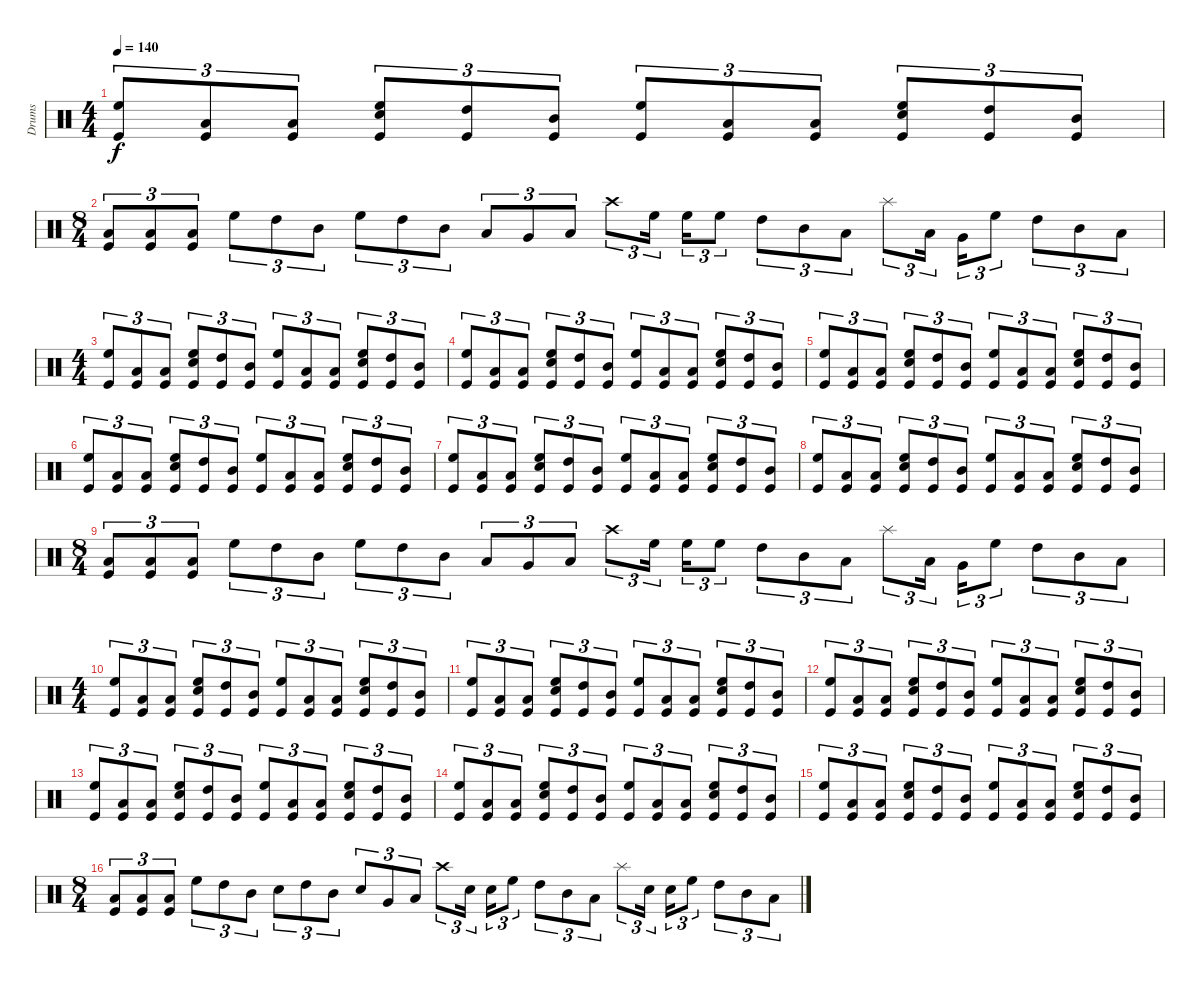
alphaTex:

\track ("Drums" "Drums") {instrument percussion}
\staff {score}
\articulation defaults
\ts (4 4)
\tempo 140
\clef neutral
\ks c
("High Floor Tom (hit)" "Kick (hit)").8{tu (3 2) dy f} ("Low Tom (hit)" "Kick (hit)").8{tu (3 2)} ("Low Floor Tom (hit)" "Kick (hit)").8{tu (3 2)} ("Snare (hit) 2" "High Floor Tom (hit)" "Kick (hit)").8{tu (3 2)} ("High Tom (hit)" "Kick (hit)").8{tu (3 2)} ("Mid Tom (hit)" "Kick (hit)").8{tu (3 2)} ("High Floor Tom (hit)" "Kick (hit)").8{tu (3 2)} ("Low Tom (hit)" "Kick (hit)").8{tu (3 2)} ("Low Floor Tom (hit)" "Kick (hit)").8{tu (3 2)} ("Snare (hit) 2" "High Floor Tom (hit)" "Kick (hit)").8{tu (3 2)} ("High Tom (hit)" "Kick (hit)").8{tu (3 2)} ("Mid Tom (hit)" "Kick (hit)").8{tu (3 2)} |
\ts (8 4)
("Low Floor Tom (hit)" "Kick (hit)").8{tu (3 2)} ("Low Floor Tom (hit)" "Kick (hit)").8{tu (3 2)} ("Low Floor Tom (hit)" "Kick (hit)").8{tu (3 2)} "High Floor Tom (hit)".8{tu (3 2)} "High Tom (hit)".8{tu (3 2)} "Mid Tom (hit)".8{tu (3 2)} "High Floor Tom (hit)".8{tu (3 2)} "High Tom (hit)".8{tu (3 2)} "Mid Tom (hit)".8{tu (3 2)} "Low Tom (hit)".8{tu (3 2)} "Very Low Tom (hit)".8{tu (3 2)} "Low Floor Tom (hit)".8{tu (3 2)} "Crash high (hit)".8{tu (3 2)} "High Floor Tom (hit)".16{tu (3 2)} "High Floor Tom (hit)".16{tu (3 2)} "High Floor Tom (hit)".8{tu (3 2)} "High Tom (hit)".8{tu (3 2)} "Mid Tom (hit)".8{tu (3 2)} "Low Tom (hit)".8{tu (3 2)} "Splash (hit)".8{tu (3 2)} "Low Floor Tom (hit)".16{tu (3 2)} "Very Low Tom (hit)".16{tu (3 2)} "High Floor Tom (hit)".8{tu (3 2)} "High Tom (hit)".8{tu (3 2)} "Mid Tom (hit)".8{tu (3 2)} "Low Tom (hit)".8{tu (3 2)} |
\ts (4 4)
("High Floor Tom (hit)" "Kick (hit)").8{tu (3 2)} ("Low Tom (hit)" "Kick (hit)").8{tu (3 2)} ("Low Floor Tom (hit)" "Kick (hit)").8{tu (3 2)} ("Snare (hit) 2" "High Floor Tom (hit)" "Kick (hit)").8{tu (3 2)} ("High Tom (hit)" "Kick (hit)").8{tu (3 2)} ("Mid Tom (hit)" "Kick (hit)").8{tu (3 2)} ("High Floor Tom (hit)" "Kick (hit)").8{tu (3 2)} ("Low Tom (hit)" "Kick (hit)").8{tu (3 2)} ("Low Floor Tom (hit)" "Kick (hit)").8{tu (3 2)} ("Snare (hit) 2" "High Floor Tom (hit)" "Kick (hit)").8{tu (3 2)} ("High Tom (hit)" "Kick (hit)").8{tu (3 2)} ("Mid Tom (hit)" "Kick (hit)").8{tu (3 2)} |
("High Floor Tom (hit)" "Kick (hit)").8{tu (3 2)} ("Low Tom (hit)" "Kick (hit)").8{tu (3 2)} ("Low Floor Tom (hit)" "Kick (hit)").8{tu (3 2)} ("Snare (hit) 2" "High Floor Tom (hit)" "Kick (hit)").8{tu (3 2)} ("High Tom (hit)" "Kick (hit)").8{tu (3 2)} ("Mid Tom (hit)" "Kick (hit)").8{tu (3 2)} ("High Floor Tom (hit)" "Kick (hit)").8{tu (3 2)} ("Low Tom (hit)" "Kick (hit)").8{tu (3 2)} ("Low Floor Tom (hit)" "Kick (hit)").8{tu (3 2)} ("Snare (hit) 2" "High Floor Tom (hit)" "Kick (hit)").8{tu (3 2)} ("High Tom (hit)" "Kick (hit)").8{tu (3 2)} ("Mid Tom (hit)" "Kick (hit)").8{tu (3 2)} |
("High Floor Tom (hit)" "Kick (hit)").8{tu (3 2)} ("Low Tom (hit)" "Kick (hit)").8{tu (3 2)} ("Low Floor Tom (hit)" "Kick (hit)").8{tu (3 2)} ("Snare (hit) 2" "High Floor Tom (hit)" "Kick (hit)").8{tu (3 2)} ("High Tom (hit)" "Kick (hit)").8{tu (3 2)} ("Mid Tom (hit)" "Kick (hit)").8{tu (3 2)} ("High Floor Tom (hit)" "Kick (hit)").8{tu (3 2)} ("Low Tom (hit)" "Kick (hit)").8{tu (3 2)} ("Low Floor Tom (hit)" "Kick (hit)").8{tu (3 2)} ("Snare (hit) 2" "High Floor Tom (hit)" "Kick (hit)").8{tu (3 2)} ("High Tom (hit)" "Kick (hit)").8{tu (3 2)} ("Mid Tom (hit)" "Kick (hit)").8{tu (3 2)} |
("High Floor Tom (hit)" "Kick (hit)").8{tu (3 2)} ("Low Tom (hit)" "Kick (hit)").8{tu (3 2)} ("Low Floor Tom (hit)" "Kick (hit)").8{tu (3 2)} ("Snare (hit) 2" "High Floor Tom (hit)" "Kick (hit)").8{tu (3 2)} ("High Tom (hit)" "Kick (hit)").8{tu (3 2)} ("Mid Tom (hit)" "Kick (hit)").8{tu (3 2)} ("High Floor Tom (hit)" "Kick (hit)").8{tu (3 2)} ("Low Tom (hit)" "Kick (hit)").8{tu (3 2)} ("Low Floor Tom (hit)" "Kick (hit)").8{tu (3 2)} ("Snare (hit) 2" "High Floor Tom (hit)" "Kick (hit)").8{tu (3 2)} ("High Tom (hit)" "Kick (hit)").8{tu (3 2)} ("Mid Tom (hit)" "Kick (hit)").8{tu (3 2)} |
("High Floor Tom (hit)" "Kick (hit)").8{tu (3 2)} ("Low Tom (hit)" "Kick (hit)").8{tu (3 2)} ("Low Floor Tom (hit)" "Kick (hit)").8{tu (3 2)} ("Snare (hit) 2" "High Floor Tom (hit)" "Kick (hit)").8{tu (3 2)} ("High Tom (hit)" "Kick (hit)").8{tu (3 2)} ("Mid Tom (hit)" "Kick (hit)").8{tu (3 2)} ("High Floor Tom (hit)" "Kick (hit)").8{tu (3 2)} ("Low Tom (hit)" "Kick (hit)").8{tu (3 2)} ("Low Floor Tom (hit)" "Kick (hit)").8{tu (3 2)} ("Snare (hit) 2" "High Floor Tom (hit)" "Kick (hit)").8{tu (3 2)} ("High Tom (hit)" "Kick (hit)").8{tu (3 2)} ("Mid Tom (hit)" "Kick (hit)").8{tu (3 2)} |
("High Floor Tom (hit)" "Kick (hit)").8{tu (3 2)} ("Low Tom (hit)" "Kick (hit)").8{tu (3 2)} ("Low Floor Tom (hit)" "Kick (hit)").8{tu (3 2)} ("Snare (hit) 2" "High Floor Tom (hit)" "Kick (hit)").8{tu (3 2)} ("High Tom (hit)" "Kick (hit)").8{tu (3 2)} ("Mid Tom (hit)" "Kick (hit)").8{tu (3 2)} ("High Floor Tom (hit)" "Kick (hit)").8{tu (3 2)} ("Low Tom (hit)" "Kick (hit)").8{tu (3 2)} ("Low Floor Tom (hit)" "Kick (hit)").8{tu (3 2)} ("Snare (hit) 2" "High Floor Tom (hit)" "Kick (hit)").8{tu (3 2)} ("High Tom (hit)" "Kick (hit)").8{tu (3 2)} ("Mid Tom (hit)" "Kick (hit)").8{tu (3 2)} |
\ts (8 4)
("Low Floor Tom (hit)" "Kick (hit)").8{tu (3 2)} ("Low Floor Tom (hit)" "Kick (hit)").8{tu (3 2)} ("Low Floor Tom (hit)" "Kick (hit)").8{tu (3 2)} "High Floor Tom (hit)".8{tu (3 2)} "High Tom (hit)".8{tu (3 2)} "Mid Tom (hit)".8{tu (3 2)} "High Floor Tom (hit)".8{tu (3 2)} "High Tom (hit)".8{tu (3 2)} "Mid Tom (hit)".8{tu (3 2)} "Low Tom (hit)".8{tu (3 2)} "Very Low Tom (hit)".8{tu (3 2)} "Low Floor Tom (hit)".8{tu (3 2)} "Crash high (hit)".8{tu (3 2)} "High Floor Tom (hit)".16{tu (3 2)} "High Floor Tom (hit)".16{tu (3 2)} "High Floor Tom (hit)".8{tu (3 2)} "High Tom (hit)".8{tu (3 2)} "Mid Tom (hit)".8{tu (3 2)} "Low Tom (hit)".8{tu (3 2)} "Splash (hit)".8{tu (3 2)} "Low Floor Tom (hit)".16{tu (3 2)} "Very Low Tom (hit)".16{tu (3 2)} "High Floor Tom (hit)".8{tu (3 2)} "High Tom (hit)".8{tu (3 2)} "Mid Tom (hit)".8{tu (3 2)} "Low Tom (hit)".8{tu (3 2)} |
\ts (4 4)
("High Floor Tom (hit)" "Kick (hit)").8{tu (3 2)} ("Low Tom (hit)" "Kick (hit)").8{tu (3 2)} ("Low Floor Tom (hit)" "Kick (hit)").8{tu (3 2)} ("Snare (hit) 2" "High Floor Tom (hit)" "Kick (hit)").8{tu (3 2)} ("High Tom (hit)" "Kick (hit)").8{tu (3 2)} ("Mid Tom (hit)" "Kick (hit)").8{tu (3 2)} ("High Floor Tom (hit)" "Kick (hit)").8{tu (3 2)} ("Low Tom (hit)" "Kick (hit)").8{tu (3 2)} ("Low Floor Tom (hit)" "Kick (hit)").8{tu (3 2)} ("Snare (hit) 2" "High Floor Tom (hit)" "Kick (hit)").8{tu (3 2)} ("High Tom (hit)" "Kick (hit)").8{tu (3 2)} ("Mid Tom (hit)" "Kick (hit)").8{tu (3 2)} |
("High Floor Tom (hit)" "Kick (hit)").8{tu (3 2)} ("Low Tom (hit)" "Kick (hit)").8{tu (3 2)} ("Low Floor Tom (hit)" "Kick (hit)").8{tu (3 2)} ("Snare (hit) 2" "High Floor Tom (hit)" "Kick (hit)").8{tu (3 2)} ("High Tom (hit)" "Kick (hit)").8{tu (3 2)} ("Mid Tom (hit)" "Kick (hit)").8{tu (3 2)} ("High Floor Tom (hit)" "Kick (hit)").8{tu (3 2)} ("Low Tom (hit)" "Kick (hit)").8{tu (3 2)} ("Low Floor Tom (hit)" "Kick (hit)").8{tu (3 2)} ("Snare (hit) 2" "High Floor Tom (hit)" "Kick (hit)").8{tu (3 2)} ("High Tom (hit)" "Kick (hit)").8{tu (3 2)} ("Mid Tom (hit)" "Kick (hit)").8{tu (3 2)} |
("High Floor Tom (hit)" "Kick (hit)").8{tu (3 2)} ("Low Tom (hit)" "Kick (hit)").8{tu (3 2)} ("Low Floor Tom (hit)" "Kick (hit)").8{tu (3 2)} ("Snare (hit) 2" "High Floor Tom (hit)" "Kick (hit)").8{tu (3 2)} ("High Tom (hit)" "Kick (hit)").8{tu (3 2)} ("Mid Tom (hit)" "Kick (hit)").8{tu (3 2)} ("High Floor Tom (hit)" "Kick (hit)").8{tu (3 2)} ("Low Tom (hit)" "Kick (hit)").8{tu (3 2)} ("Low Floor Tom (hit)" "Kick (hit)").8{tu (3 2)} ("Snare (hit) 2" "High Floor Tom (hit)" "Kick (hit)").8{tu (3 2)} ("High Tom (hit)" "Kick (hit)").8{tu (3 2)} ("Mid Tom (hit)" "Kick (hit)").8{tu (3 2)} |
("High Floor Tom (hit)" "Kick (hit)").8{tu (3 2)} ("Low Tom (hit)" "Kick (hit)").8{tu (3 2)} ("Low Floor Tom (hit)" "Kick (hit)").8{tu (3 2)} ("Snare (hit) 2" "High Floor Tom (hit)" "Kick (hit)").8{tu (3 2)} ("High Tom (hit)" "Kick (hit)").8{tu (3 2)} ("Mid Tom (hit)" "Kick (hit)").8{tu (3 2)} ("High Floor Tom (hit)" "Kick (hit)").8{tu (3 2)} ("Low Tom (hit)" "Kick (hit)").8{tu (3 2)} ("Low Floor Tom (hit)" "Kick (hit)").8{tu (3 2)} ("Snare (hit) 2" "High Floor Tom (hit)" "Kick (hit)").8{tu (3 2)} ("High Tom (hit)" "Kick (hit)").8{tu (3 2)} ("Mid Tom (hit)" "Kick (hit)").8{tu (3 2)} |
("High Floor Tom (hit)" "Kick (hit)").8{tu (3 2)} ("Low Tom (hit)" "Kick (hit)").8{tu (3 2)} ("Low Floor Tom (hit)" "Kick (hit)").8{tu (3 2)} ("Snare (hit) 2" "High Floor Tom (hit)" "Kick (hit)").8{tu (3 2)} ("High Tom (hit)" "Kick (hit)").8{tu (3 2)} ("Mid Tom (hit)" "Kick (hit)").8{tu (3 2)} ("High Floor Tom (hit)" "Kick (hit)").8{tu (3 2)} ("Low Tom (hit)" "Kick (hit)").8{tu (3 2)} ("Low Floor Tom (hit)" "Kick (hit)").8{tu (3 2)} ("Snare (hit) 2" "High Floor Tom (hit)" "Kick (hit)").8{tu (3 2)} ("High Tom (hit)" "Kick (hit)").8{tu (3 2)} ("Mid Tom (hit)" "Kick (hit)").8{tu (3 2)} |
("High Floor Tom (hit)" "Kick (hit)").8{tu (3 2)} ("Low Tom (hit)" "Kick (hit)").8{tu (3 2)} ("Low Floor Tom (hit)" "Kick (hit)").8{tu (3 2)} ("Snare (hit) 2" "High Floor Tom (hit)" "Kick (hit)").8{tu (3 2)} ("High Tom (hit)" "Kick (hit)").8{tu (3 2)} ("Mid Tom (hit)" "Kick (hit)").8{tu (3 2)} ("High Floor Tom (hit)" "Kick (hit)").8{tu (3 2)} ("Low Tom (hit)" "Kick (hit)").8{tu (3 2)} ("Low Floor Tom (hit)" "Kick (hit)").8{tu (3 2)} ("Snare (hit) 2" "High Floor Tom (hit)" "Kick (hit)").8{tu (3 2)} ("High Tom (hit)" "Kick (hit)").8{tu (3 2)} ("Mid Tom (hit)" "Kick (hit)").8{tu (3 2)} |
\ts (8 4)
("Low Floor Tom (hit)" "Kick (hit)").8{tu (3 2)} ("Low Floor Tom (hit)" "Kick (hit)").8{tu (3 2)} ("Low Floor Tom (hit)" "Kick (hit)").8{tu (3 2)} "High Floor Tom (hit)".8{tu (3 2)} "High Tom (hit)".8{tu (3 2)} "Mid Tom (hit)".8{tu (3 2)} "Snare (hit) 2".8{tu (3 2)} "High Tom (hit)".8{tu (3 2)} "Mid Tom (hit)".8{tu (3 2)} "Snare (hit) 2".8{tu (3 2)} "Very Low Tom (hit)".8{tu (3 2)} "Low Floor Tom (hit)".8{tu (3 2)} "Crash high (hit)".8{tu (3 2)} "Snare (hit) 2".16{tu (3 2)} "Snare (hit) 2".16{tu (3 2)} "High Floor Tom (hit)".8{tu (3 2)} "High Tom (hit)".8{tu (3 2)} "Mid Tom (hit)".8{tu (3 2)} "Low Tom (hit)".8{tu (3 2)} "Splash (hit)".8{tu (3 2)} "Snare (hit) 2".16{tu (3 2)} "Snare (hit) 2".16{tu (3 2)} "High Floor Tom (hit)".8{tu (3 2)} "High Tom (hit)".8{tu (3 2)} "Mid Tom (hit)".8{tu (3 2)} "Low Tom (hit)".8{tu (3 2)}
